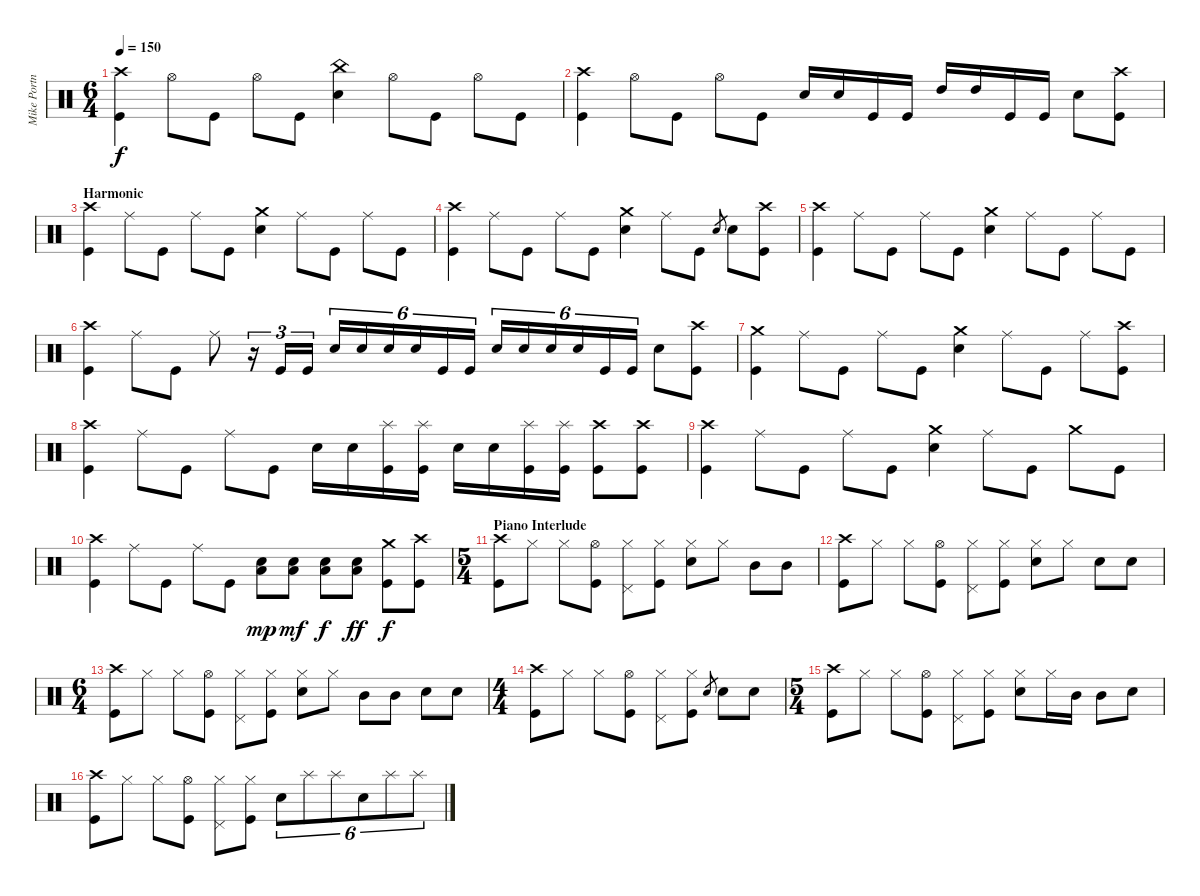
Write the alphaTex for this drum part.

\track ("Mike Portnoy" "Mike Portn") {instrument percussion}
\staff {score}
\articulation defaults
\ts (6 4)
\tempo 150
\clef neutral
\ks c
("Crash high (hit)" "Kick (hit)").4{dy f} "Hi-Hat (open)".8 "Kick (hit)".8 "Hi-Hat (open)".8 "Kick (hit)".8 ("China (hit)" "Electric Snare (hit)").4 "Hi-Hat (open)".8 "Kick (hit)".8 "Hi-Hat (open)".8 "Kick (hit)".8 |
("Crash high (hit)" "Kick (hit)").4 "Hi-Hat (open)".8 "Kick (hit)".8 "Hi-Hat (open)".8 "Kick (hit)".8 "Electric Snare (hit)".16 "Electric Snare (hit)".16 "Kick (hit)".16 "Kick (hit)".16 "High Tom (hit)".16 "High Tom (hit)".16 "Kick (hit)".16 "Kick (hit)".16 "Electric Snare (hit)".8 ("Crash high (hit)" "Kick (hit)").8 |
\section ("" "Harmonic")
("Crash high (hit)" "Kick (hit)").4 "Ride (middle)".8 "Kick (hit)".8 "Ride (middle)".8 "Kick (hit)".8 ("Crash medium (hit)" "Electric Snare (hit)").4 "Ride (middle)".8 "Kick (hit)".8 "Ride (middle)".8 "Kick (hit)".8 |
("Crash high (hit)" "Kick (hit)").4 "Ride (middle)".8 "Kick (hit)".8 "Ride (middle)".8 "Kick (hit)".8 ("Crash medium (hit)" "Electric Snare (hit)").4 "Ride (middle)".8 "Kick (hit)".8 "Electric Snare (hit)".8{gr} "Electric Snare (hit)".8 ("Crash high (hit)" "Kick (hit)").8 |
("Crash high (hit)" "Kick (hit)").4 "Ride (middle)".8 "Kick (hit)".8 "Ride (middle)".8 "Kick (hit)".8 ("Crash medium (hit)" "Electric Snare (hit)").4 "Ride (middle)".8 "Kick (hit)".8 "Ride (middle)".8 "Kick (hit)".8 |
("Crash high (hit)" "Kick (hit)").4 "Ride (middle)".8 "Kick (hit)".8 "Ride (middle)".8 r.16{tu (3 2)} "Kick (hit)".16{tu (3 2)} "Kick (hit)".16{tu (3 2)} "Electric Snare (hit)".16{tu (6 4)} "Electric Snare (hit)".16{tu (6 4)} "Electric Snare (hit)".16{tu (6 4)} "Electric Snare (hit)".16{tu (6 4)} "Kick (hit)".16{tu (6 4)} "Kick (hit)".16{tu (6 4)} "Electric Snare (hit)".16{tu (6 4)} "Electric Snare (hit)".16{tu (6 4)} "Electric Snare (hit)".16{tu (6 4)} "Electric Snare (hit)".16{tu (6 4)} "Kick (hit)".16{tu (6 4)} "Kick (hit)".16{tu (6 4)} "Electric Snare (hit)".8 ("Crash high (hit)" "Kick (hit)").8 |
("Crash medium (hit)" "Kick (hit)").4 "Ride (middle)".8 "Kick (hit)".8 "Ride (middle)".8 "Kick (hit)".8 ("Crash medium (hit)" "Electric Snare (hit)").4 "Ride (middle)".8 "Kick (hit)".8 "Ride (middle)".8 ("Crash high (hit)" "Kick (hit)").8 |
("Crash high (hit)" "Kick (hit)").4 "Ride (middle)".8 "Kick (hit)".8 "Ride (middle)".8 "Kick (hit)".8 "Electric Snare (hit)".16 "Electric Snare (hit)".16 ("Splash (hit)" "Kick (hit)").16 ("Splash (hit)" "Kick (hit)").16 "Electric Snare (hit)".16 "Electric Snare (hit)".16 ("Splash (hit)" "Kick (hit)").16 ("Splash (hit)" "Kick (hit)").16 ("Crash high (hit)" "Kick (hit)").8 ("Crash high (hit)" "Kick (hit)").8 |
("Crash high (hit)" "Kick (hit)").4 "Ride (middle)".8 "Kick (hit)".8 "Ride (middle)".8 "Kick (hit)".8 ("Crash medium (hit)" "Electric Snare (hit)").4 "Ride (middle)".8 "Kick (hit)".8 "Crash medium (hit)".8 "Kick (hit)".8 |
("Crash high (hit)" "Kick (hit)").4 "Ride (middle)".8 "Kick (hit)".8 "Ride (middle)".8 "Kick (hit)".8 ("Low Tom (hit)" "Electric Snare (hit)").8{dy mp} ("Low Tom (hit)" "Electric Snare (hit)").8{dy mf} ("Low Tom (hit)" "Electric Snare (hit)").8{dy f} ("Low Tom (hit)" "Electric Snare (hit)").8{dy ff} ("Crash medium (hit)" "Kick (hit)").8{dy f} ("Crash high (hit)" "Kick (hit)").8 |
\ts (5 4)
\section ("" "Piano Interlude")
("Crash high (hit)" "Kick (hit)").8 "Hi-Hat (closed)".8 "Hi-Hat (closed)".8 ("Hi-Hat (open)" "Kick (hit)").8 ("Hi-Hat (closed)" "Pedal Hi-Hat (hit)").8 ("Hi-Hat (closed)" "Kick (hit)").8 ("Hi-Hat (closed)" "Electric Snare (hit)").8 "Hi-Hat (closed)".8 "Mid Tom (hit)".8 "Mid Tom (hit)".8 |
("Crash high (hit)" "Kick (hit)").8 "Hi-Hat (closed)".8 "Hi-Hat (closed)".8 ("Hi-Hat (open)" "Kick (hit)").8 ("Hi-Hat (closed)" "Pedal Hi-Hat (hit)").8 ("Hi-Hat (closed)" "Kick (hit)").8 ("Hi-Hat (closed)" "Electric Snare (hit)").8 "Hi-Hat (closed)".8 "Electric Snare (hit)".8 "Electric Snare (hit)".8 |
\ts (6 4)
("Crash high (hit)" "Kick (hit)").8 "Hi-Hat (closed)".8 "Hi-Hat (closed)".8 ("Hi-Hat (open)" "Kick (hit)").8 ("Hi-Hat (closed)" "Pedal Hi-Hat (hit)").8 ("Hi-Hat (closed)" "Kick (hit)").8 ("Hi-Hat (closed)" "Electric Snare (hit)").8 "Hi-Hat (closed)".8 "Mid Tom (hit)".8 "Mid Tom (hit)".8 "Electric Snare (hit)".8 "Electric Snare (hit)".8 |
\ts (4 4)
("Crash high (hit)" "Kick (hit)").8 "Hi-Hat (closed)".8 "Hi-Hat (closed)".8 ("Hi-Hat (open)" "Kick (hit)").8 ("Hi-Hat (closed)" "Pedal Hi-Hat (hit)").8 ("Hi-Hat (closed)" "Kick (hit)").8 "Electric Snare (hit)".8{gr} "Electric Snare (hit)".8 "Electric Snare (hit)".8 |
\ts (5 4)
("Crash high (hit)" "Kick (hit)").8 "Hi-Hat (closed)".8 "Hi-Hat (closed)".8 ("Hi-Hat (open)" "Kick (hit)").8 ("Hi-Hat (closed)" "Pedal Hi-Hat (hit)").8 ("Hi-Hat (closed)" "Kick (hit)").8 ("Hi-Hat (closed)" "Electric Snare (hit)").8 "Hi-Hat (closed)".16 "Mid Tom (hit)".16 "Mid Tom (hit)".8 "Electric Snare (hit)".8 |
("Crash high (hit)" "Kick (hit)").8 "Hi-Hat (closed)".8 "Hi-Hat (closed)".8 ("Hi-Hat (open)" "Kick (hit)").8 ("Hi-Hat (closed)" "Pedal Hi-Hat (hit)").8 ("Hi-Hat (closed)" "Kick (hit)").8 "Electric Snare (hit)".8{tu (6 4)} "Splash (hit)".8{tu (6 4)} "Splash (hit)".8{tu (6 4)} "Electric Snare (hit)".8{tu (6 4)} "Splash (hit)".8{tu (6 4)} "Splash (hit)".8{tu (6 4)}
